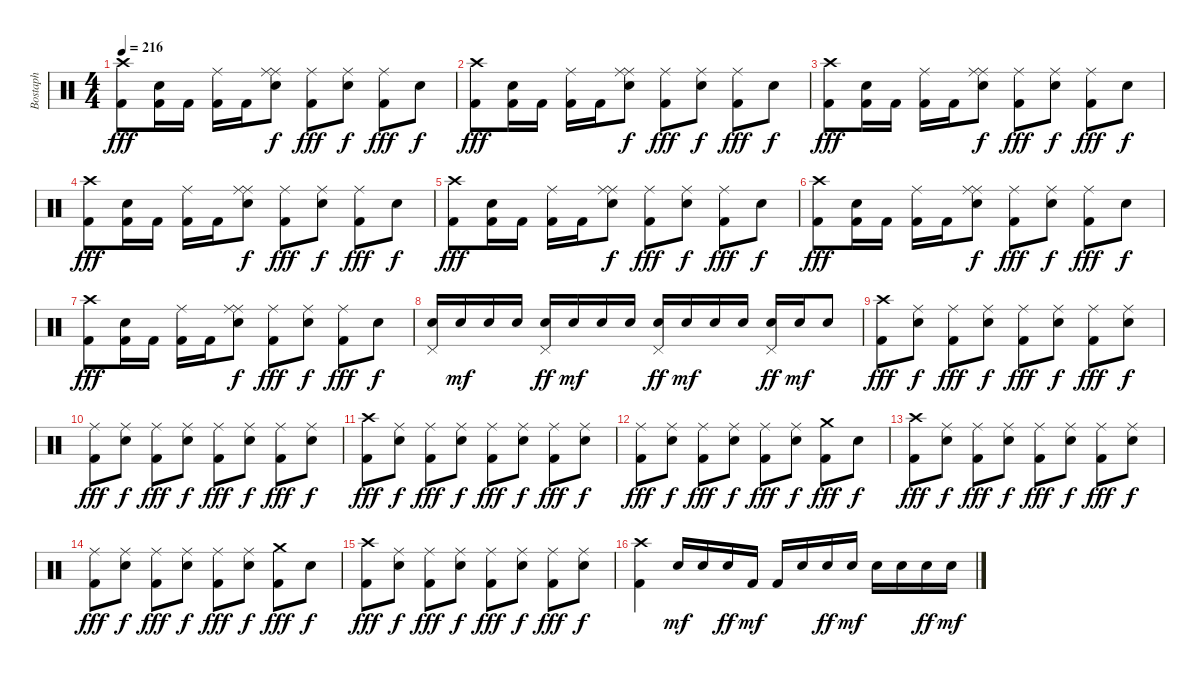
\track ("Bostaph" "Bostaph") {instrument percussion}
\staff {score}
\articulation defaults
\ts (4 4)
\tempo 216
\clef neutral
\ks c
("Crash high (hit)" "Kick (hit) 2").8{dy fff} ("Electric Snare (hit)" "Kick (hit) 2").16 "Kick (hit) 2".16 ("Ride (middle)" "Kick (hit) 2").16 "Kick (hit) 2".16 ("Ride (middle)" "Electric Snare (hit)" "Ride (middle)").8{dy f} ("Ride (middle)" "Kick (hit) 2").8{dy fff} ("Ride (middle)" "Electric Snare (hit)").8{dy f} ("Ride (middle)" "Kick (hit) 2").8{dy fff} "Electric Snare (hit)".8{dy f} |
("Crash high (hit)" "Kick (hit) 2").8{dy fff} ("Electric Snare (hit)" "Kick (hit) 2").16 "Kick (hit) 2".16 ("Ride (middle)" "Kick (hit) 2").16 "Kick (hit) 2".16 ("Ride (middle)" "Electric Snare (hit)" "Ride (middle)").8{dy f} ("Ride (middle)" "Kick (hit) 2").8{dy fff} ("Ride (middle)" "Electric Snare (hit)").8{dy f} ("Ride (middle)" "Kick (hit) 2").8{dy fff} "Electric Snare (hit)".8{dy f} |
("Crash high (hit)" "Kick (hit) 2").8{dy fff} ("Electric Snare (hit)" "Kick (hit) 2").16 "Kick (hit) 2".16 ("Ride (middle)" "Kick (hit) 2").16 "Kick (hit) 2".16 ("Ride (middle)" "Electric Snare (hit)" "Ride (middle)").8{dy f} ("Ride (middle)" "Kick (hit) 2").8{dy fff} ("Ride (middle)" "Electric Snare (hit)").8{dy f} ("Ride (middle)" "Kick (hit) 2").8{dy fff} "Electric Snare (hit)".8{dy f} |
("Crash high (hit)" "Kick (hit) 2").8{dy fff} ("Electric Snare (hit)" "Kick (hit) 2").16 "Kick (hit) 2".16 ("Ride (middle)" "Kick (hit) 2").16 "Kick (hit) 2".16 ("Ride (middle)" "Electric Snare (hit)" "Ride (middle)").8{dy f} ("Ride (middle)" "Kick (hit) 2").8{dy fff} ("Ride (middle)" "Electric Snare (hit)").8{dy f} ("Ride (middle)" "Kick (hit) 2").8{dy fff} "Electric Snare (hit)".8{dy f} |
("Crash high (hit)" "Kick (hit) 2").8{dy fff} ("Electric Snare (hit)" "Kick (hit) 2").16 "Kick (hit) 2".16 ("Ride (middle)" "Kick (hit) 2").16 "Kick (hit) 2".16 ("Ride (middle)" "Electric Snare (hit)" "Ride (middle)").8{dy f} ("Ride (middle)" "Kick (hit) 2").8{dy fff} ("Ride (middle)" "Electric Snare (hit)").8{dy f} ("Ride (middle)" "Kick (hit) 2").8{dy fff} "Electric Snare (hit)".8{dy f} |
("Crash high (hit)" "Kick (hit) 2").8{dy fff} ("Electric Snare (hit)" "Kick (hit) 2").16 "Kick (hit) 2".16 ("Ride (middle)" "Kick (hit) 2").16 "Kick (hit) 2".16 ("Ride (middle)" "Electric Snare (hit)" "Ride (middle)").8{dy f} ("Ride (middle)" "Kick (hit) 2").8{dy fff} ("Ride (middle)" "Electric Snare (hit)").8{dy f} ("Ride (middle)" "Kick (hit) 2").8{dy fff} "Electric Snare (hit)".8{dy f} |
("Crash high (hit)" "Kick (hit) 2").8{dy fff} ("Electric Snare (hit)" "Kick (hit) 2").16 "Kick (hit) 2".16 ("Ride (middle)" "Kick (hit) 2").16 "Kick (hit) 2".16 ("Ride (middle)" "Electric Snare (hit)" "Ride (middle)").8{dy f} ("Ride (middle)" "Kick (hit) 2").8{dy fff} ("Ride (middle)" "Electric Snare (hit)").8{dy f} ("Ride (middle)" "Kick (hit) 2").8{dy fff} "Electric Snare (hit)".8{dy f} |
("Pedal Hi-Hat (hit)" "Electric Snare (hit)").16 "Electric Snare (hit)".16{dy mf} "Electric Snare (hit)".16 "Electric Snare (hit)".16 ("Pedal Hi-Hat (hit)" "Electric Snare (hit)").16{dy ff} "Electric Snare (hit)".16{dy mf} "Electric Snare (hit)".16 "Electric Snare (hit)".16 ("Pedal Hi-Hat (hit)" "Electric Snare (hit)").16{dy ff} "Electric Snare (hit)".16{dy mf} "Electric Snare (hit)".16 "Electric Snare (hit)".16 ("Pedal Hi-Hat (hit)" "Electric Snare (hit)").16{dy ff} "Electric Snare (hit)".16{dy mf} "Electric Snare (hit)".8 |
("Crash high (hit)" "Kick (hit) 2").8{dy fff} ("Ride (middle)" "Electric Snare (hit)").8{dy f} ("Ride (middle)" "Kick (hit) 2").8{dy fff} ("Ride (middle)" "Electric Snare (hit)").8{dy f} ("Ride (middle)" "Kick (hit) 2").8{dy fff} ("Ride (middle)" "Electric Snare (hit)").8{dy f} ("Ride (middle)" "Kick (hit) 2").8{dy fff} ("Ride (middle)" "Electric Snare (hit)").8{dy f} |
("Ride (middle)" "Kick (hit) 2").8{dy fff} ("Ride (middle)" "Electric Snare (hit)").8{dy f} ("Ride (middle)" "Kick (hit) 2").8{dy fff} ("Ride (middle)" "Electric Snare (hit)").8{dy f} ("Ride (middle)" "Kick (hit) 2").8{dy fff} ("Ride (middle)" "Electric Snare (hit)").8{dy f} ("Ride (middle)" "Kick (hit) 2").8{dy fff} ("Ride (middle)" "Electric Snare (hit)").8{dy f} |
("Crash high (hit)" "Kick (hit) 2").8{dy fff} ("Ride (middle)" "Electric Snare (hit)").8{dy f} ("Ride (middle)" "Kick (hit) 2").8{dy fff} ("Ride (middle)" "Electric Snare (hit)").8{dy f} ("Ride (middle)" "Kick (hit) 2").8{dy fff} ("Ride (middle)" "Electric Snare (hit)").8{dy f} ("Ride (middle)" "Kick (hit) 2").8{dy fff} ("Ride (middle)" "Electric Snare (hit)").8{dy f} |
("Ride (middle)" "Kick (hit) 2").8{dy fff} ("Ride (middle)" "Electric Snare (hit)").8{dy f} ("Ride (middle)" "Kick (hit) 2").8{dy fff} ("Ride (middle)" "Electric Snare (hit)").8{dy f} ("Ride (middle)" "Kick (hit) 2").8{dy fff} ("Ride (middle)" "Electric Snare (hit)").8{dy f} ("Crash medium (hit)" "Kick (hit) 2").8{dy fff} "Electric Snare (hit)".8{dy f} |
("Crash high (hit)" "Kick (hit) 2").8{dy fff} ("Ride (middle)" "Electric Snare (hit)").8{dy f} ("Ride (middle)" "Kick (hit) 2").8{dy fff} ("Ride (middle)" "Electric Snare (hit)").8{dy f} ("Ride (middle)" "Kick (hit) 2").8{dy fff} ("Ride (middle)" "Electric Snare (hit)").8{dy f} ("Ride (middle)" "Kick (hit) 2").8{dy fff} ("Ride (middle)" "Electric Snare (hit)").8{dy f} |
("Ride (middle)" "Kick (hit) 2").8{dy fff} ("Ride (middle)" "Electric Snare (hit)").8{dy f} ("Ride (middle)" "Kick (hit) 2").8{dy fff} ("Ride (middle)" "Electric Snare (hit)").8{dy f} ("Ride (middle)" "Kick (hit) 2").8{dy fff} ("Ride (middle)" "Electric Snare (hit)").8{dy f} ("Crash medium (hit)" "Kick (hit) 2").8{dy fff} "Electric Snare (hit)".8{dy f} |
("Crash high (hit)" "Kick (hit) 2").8{dy fff} ("Ride (middle)" "Electric Snare (hit)").8{dy f} ("Ride (middle)" "Kick (hit) 2").8{dy fff} ("Ride (middle)" "Electric Snare (hit)").8{dy f} ("Ride (middle)" "Kick (hit) 2").8{dy fff} ("Ride (middle)" "Electric Snare (hit)").8{dy f} ("Ride (middle)" "Kick (hit) 2").8{dy fff} ("Ride (middle)" "Electric Snare (hit)").8{dy f} |
("Crash high (hit)" "Kick (hit) 2").4 "Electric Snare (hit)".16{dy mf} "Electric Snare (hit)".16 "Electric Snare (hit)".16{dy ff} "Kick (hit) 2".16{dy mf} "Kick (hit) 2".16 "Electric Snare (hit)".16 "Electric Snare (hit)".16{dy ff} "Electric Snare (hit)".16{dy mf} "Electric Snare (hit)".16 "Electric Snare (hit)".16 "Electric Snare (hit)".16{dy ff} "Electric Snare (hit)".16{dy mf}
